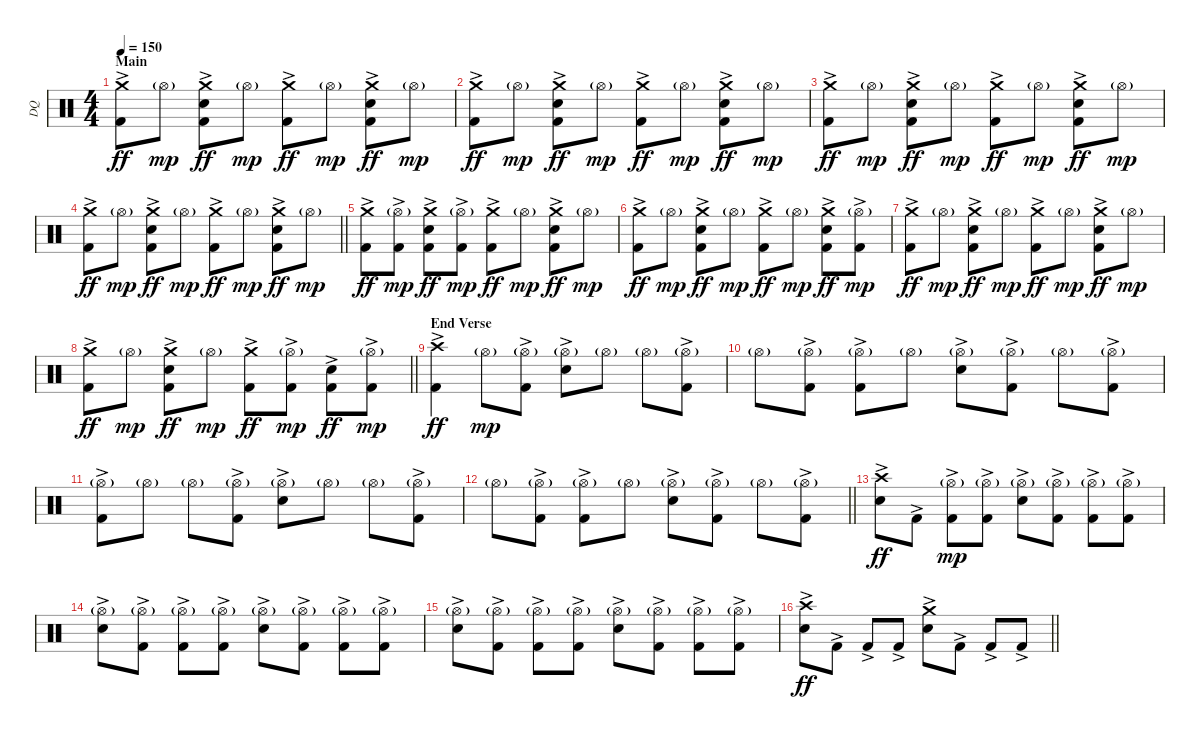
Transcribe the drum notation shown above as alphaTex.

\track ("DQ" "DQ") {instrument percussion}
\staff {score}
\articulation defaults
\ts (4 4)
\section ("" "Main")
\tempo 150
\clef neutral
\ks c
("Kick (hit) 2"{ac} "Crash medium (hit)").8{dy ff} "Hi-Hat (open)"{g}.8{dy mp} ("Kick (hit) 2"{ac} "Snare (hit) 2"{ac} "Crash medium (hit)").8{dy ff} "Hi-Hat (open)"{g}.8{dy mp} ("Kick (hit) 2"{ac} "Crash medium (hit)").8{dy ff} "Hi-Hat (open)"{g}.8{dy mp} ("Kick (hit) 2"{ac} "Snare (hit) 2"{ac} "Crash medium (hit)").8{dy ff} "Hi-Hat (open)"{g}.8{dy mp} |
("Kick (hit) 2"{ac} "Crash medium (hit)").8{dy ff} "Hi-Hat (open)"{g}.8{dy mp} ("Kick (hit) 2"{ac} "Snare (hit) 2"{ac} "Crash medium (hit)").8{dy ff} "Hi-Hat (open)"{g}.8{dy mp} ("Kick (hit) 2"{ac} "Crash medium (hit)").8{dy ff} "Hi-Hat (open)"{g}.8{dy mp} ("Kick (hit) 2"{ac} "Snare (hit) 2"{ac} "Crash medium (hit)").8{dy ff} "Hi-Hat (open)"{g}.8{dy mp} |
("Kick (hit) 2"{ac} "Crash medium (hit)").8{dy ff} "Hi-Hat (open)"{g}.8{dy mp} ("Kick (hit) 2"{ac} "Snare (hit) 2"{ac} "Crash medium (hit)").8{dy ff} "Hi-Hat (open)"{g}.8{dy mp} ("Kick (hit) 2"{ac} "Crash medium (hit)").8{dy ff} "Hi-Hat (open)"{g}.8{dy mp} ("Kick (hit) 2"{ac} "Snare (hit) 2"{ac} "Crash medium (hit)").8{dy ff} "Hi-Hat (open)"{g}.8{dy mp} |
\barLineRight lightlight
("Kick (hit) 2"{ac} "Crash medium (hit)").8{dy ff} "Hi-Hat (open)"{g}.8{dy mp} ("Kick (hit) 2"{ac} "Snare (hit) 2"{ac} "Crash medium (hit)").8{dy ff} "Hi-Hat (open)"{g}.8{dy mp} ("Kick (hit) 2"{ac} "Crash medium (hit)").8{dy ff} "Hi-Hat (open)"{g}.8{dy mp} ("Kick (hit) 2"{ac} "Snare (hit) 2"{ac} "Crash medium (hit)").8{dy ff} "Hi-Hat (open)"{g}.8{dy mp} |
\section ("" "")
("Kick (hit) 2"{ac} "Crash medium (hit)").8{dy ff} ("Kick (hit) 2"{ac} "Hi-Hat (open)"{g}).8{dy mp} ("Kick (hit) 2"{ac} "Snare (hit) 2"{ac} "Crash medium (hit)").8{dy ff} ("Kick (hit) 2"{ac} "Hi-Hat (open)"{g}).8{dy mp} ("Kick (hit) 2"{ac} "Crash medium (hit)").8{dy ff} "Hi-Hat (open)"{g}.8{dy mp} ("Kick (hit) 2"{ac} "Snare (hit) 2"{ac} "Crash medium (hit)").8{dy ff} "Hi-Hat (open)"{g}.8{dy mp} |
("Kick (hit) 2"{ac} "Crash medium (hit)").8{dy ff} "Hi-Hat (open)"{g}.8{dy mp} ("Kick (hit) 2"{ac} "Snare (hit) 2"{ac} "Crash medium (hit)").8{dy ff} "Hi-Hat (open)"{g}.8{dy mp} ("Kick (hit) 2"{ac} "Crash medium (hit)").8{dy ff} "Hi-Hat (open)"{g}.8{dy mp} ("Kick (hit) 2"{ac} "Snare (hit) 2"{ac} "Crash medium (hit)").8{dy ff} ("Kick (hit) 2"{ac} "Hi-Hat (open)"{g}).8{dy mp} |
("Kick (hit) 2"{ac} "Crash medium (hit)").8{dy ff} "Hi-Hat (open)"{g}.8{dy mp} ("Kick (hit) 2"{ac} "Snare (hit) 2"{ac} "Crash medium (hit)").8{dy ff} "Hi-Hat (open)"{g}.8{dy mp} ("Kick (hit) 2"{ac} "Crash medium (hit)").8{dy ff} "Hi-Hat (open)"{g}.8{dy mp} ("Kick (hit) 2"{ac} "Snare (hit) 2"{ac} "Crash medium (hit)").8{dy ff} "Hi-Hat (open)"{g}.8{dy mp} |
\barLineRight lightlight
("Kick (hit) 2"{ac} "Crash medium (hit)").8{dy ff} "Hi-Hat (open)"{g}.8{dy mp} ("Kick (hit) 2"{ac} "Snare (hit) 2"{ac} "Crash medium (hit)").8{dy ff} "Hi-Hat (open)"{g}.8{dy mp} ("Kick (hit) 2"{ac} "Crash medium (hit)").8{dy ff} ("Kick (hit) 2"{ac} "Hi-Hat (open)"{g}).8{dy mp} ("Kick (hit) 2"{ac} "Snare (hit) 2"{ac}).8{dy ff} ("Kick (hit) 2"{ac} "Hi-Hat (open)"{g}).8{dy mp} |
\section ("" "End Verse")
("Kick (hit) 2"{ac} "Crash high (hit)").4{dy ff} "Hi-Hat (open)"{g}.8{dy mp} ("Kick (hit) 2"{ac} "Hi-Hat (open)"{g}).8 ("Snare (hit) 2"{ac} "Hi-Hat (open)"{g}).8 "Hi-Hat (open)"{g}.8 "Hi-Hat (open)"{g}.8 ("Kick (hit) 2"{ac} "Hi-Hat (open)"{g}).8 |
"Hi-Hat (open)"{g}.8 ("Kick (hit) 2"{ac} "Hi-Hat (open)"{g}).8 ("Kick (hit) 2"{ac} "Hi-Hat (open)"{g}).8 "Hi-Hat (open)"{g}.8 ("Snare (hit) 2"{ac} "Hi-Hat (open)"{g}).8 ("Kick (hit) 2"{ac} "Hi-Hat (open)"{g}).8 "Hi-Hat (open)"{g}.8 ("Kick (hit) 2"{ac} "Hi-Hat (open)"{g}).8 |
("Kick (hit) 2"{ac} "Hi-Hat (open)"{g}).8 "Hi-Hat (open)"{g}.8 "Hi-Hat (open)"{g}.8 ("Kick (hit) 2"{ac} "Hi-Hat (open)"{g}).8 ("Snare (hit) 2"{ac} "Hi-Hat (open)"{g}).8 "Hi-Hat (open)"{g}.8 "Hi-Hat (open)"{g}.8 ("Kick (hit) 2"{ac} "Hi-Hat (open)"{g}).8 |
\barLineRight lightlight "Hi-Hat (open)"{g}.8
("Kick (hit) 2"{ac} "Hi-Hat (open)"{g}).8 ("Kick (hit) 2"{ac} "Hi-Hat (open)"{g}).8 "Hi-Hat (open)"{g}.8 ("Snare (hit) 2"{ac} "Hi-Hat (open)"{g}).8 ("Kick (hit) 2"{ac} "Hi-Hat (open)"{g}).8 "Hi-Hat (open)"{g}.8 ("Kick (hit) 2"{ac} "Hi-Hat (open)"{g}).8 |
\section ("" "")
("Snare (hit) 2"{ac} "Crash high (hit)").8{dy ff} "Kick (hit) 2"{ac}.8 ("Kick (hit) 2"{ac} "Hi-Hat (open)"{g}).8{dy mp} ("Kick (hit) 2"{ac} "Hi-Hat (open)"{g}).8 ("Snare (hit) 2"{ac} "Hi-Hat (open)"{g}).8 ("Kick (hit) 2"{ac} "Hi-Hat (open)"{g}).8 ("Kick (hit) 2"{ac} "Hi-Hat (open)"{g}).8 ("Kick (hit) 2"{ac} "Hi-Hat (open)"{g}).8 |
("Snare (hit) 2"{ac} "Hi-Hat (open)"{g}).8 ("Kick (hit) 2"{ac} "Hi-Hat (open)"{g}).8 ("Kick (hit) 2"{ac} "Hi-Hat (open)"{g}).8 ("Kick (hit) 2"{ac} "Hi-Hat (open)"{g}).8 ("Snare (hit) 2"{ac} "Hi-Hat (open)"{g}).8 ("Kick (hit) 2"{ac} "Hi-Hat (open)"{g}).8 ("Kick (hit) 2"{ac} "Hi-Hat (open)"{g}).8 ("Kick (hit) 2"{ac} "Hi-Hat (open)"{g}).8 |
("Snare (hit) 2"{ac} "Hi-Hat (open)"{g}).8 ("Kick (hit) 2"{ac} "Hi-Hat (open)"{g}).8 ("Kick (hit) 2"{ac} "Hi-Hat (open)"{g}).8 ("Kick (hit) 2"{ac} "Hi-Hat (open)"{g}).8 ("Snare (hit) 2"{ac} "Hi-Hat (open)"{g}).8 ("Kick (hit) 2"{ac} "Hi-Hat (open)"{g}).8 ("Kick (hit) 2"{ac} "Hi-Hat (open)"{g}).8 ("Kick (hit) 2"{ac} "Hi-Hat (open)"{g}).8 |
\barLineRight lightlight
("Snare (hit) 2"{ac} "Crash high (hit)").8{dy ff} "Kick (hit) 2"{ac}.8 "Kick (hit) 2"{ac}.8 "Kick (hit) 2"{ac}.8 ("Snare (hit) 2"{ac} "Crash medium (hit)").8 "Kick (hit) 2"{ac}.8 "Kick (hit) 2"{ac}.8 "Kick (hit) 2"{ac}.8
